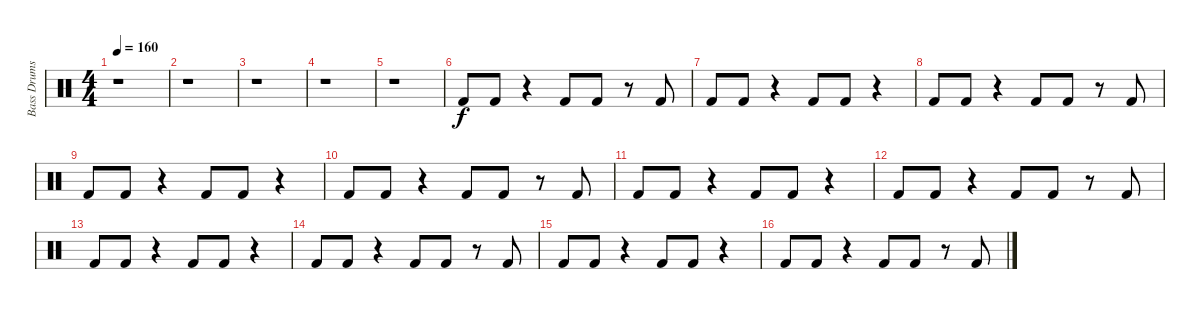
\track ("Bass Drums" "Bass Drums") {instrument percussion}
\staff {score}
\articulation defaults
\ts (4 4)
\tempo 160
\clef neutral
\ks c
r.1{dy f} |
r.1 |
r.1 |
r.1 |
r.1 |
"Kick (hit) 2".8 "Kick (hit) 2".8 r.4 "Kick (hit) 2".8 "Kick (hit) 2".8 r.8 "Kick (hit) 2".8 |
"Kick (hit) 2".8 "Kick (hit) 2".8 r.4 "Kick (hit) 2".8 "Kick (hit) 2".8 r.4 |
"Kick (hit) 2".8 "Kick (hit) 2".8 r.4 "Kick (hit) 2".8 "Kick (hit) 2".8 r.8 "Kick (hit) 2".8 |
"Kick (hit) 2".8 "Kick (hit) 2".8 r.4 "Kick (hit) 2".8 "Kick (hit) 2".8 r.4 |
"Kick (hit) 2".8 "Kick (hit) 2".8 r.4 "Kick (hit) 2".8 "Kick (hit) 2".8 r.8 "Kick (hit) 2".8 |
"Kick (hit) 2".8 "Kick (hit) 2".8 r.4 "Kick (hit) 2".8 "Kick (hit) 2".8 r.4 |
"Kick (hit) 2".8 "Kick (hit) 2".8 r.4 "Kick (hit) 2".8 "Kick (hit) 2".8 r.8 "Kick (hit) 2".8 |
"Kick (hit) 2".8 "Kick (hit) 2".8 r.4 "Kick (hit) 2".8 "Kick (hit) 2".8 r.4 |
"Kick (hit) 2".8 "Kick (hit) 2".8 r.4 "Kick (hit) 2".8 "Kick (hit) 2".8 r.8 "Kick (hit) 2".8 |
"Kick (hit) 2".8 "Kick (hit) 2".8 r.4 "Kick (hit) 2".8 "Kick (hit) 2".8 r.4 |
"Kick (hit) 2".8 "Kick (hit) 2".8 r.4 "Kick (hit) 2".8 "Kick (hit) 2".8 r.8 "Kick (hit) 2".8
